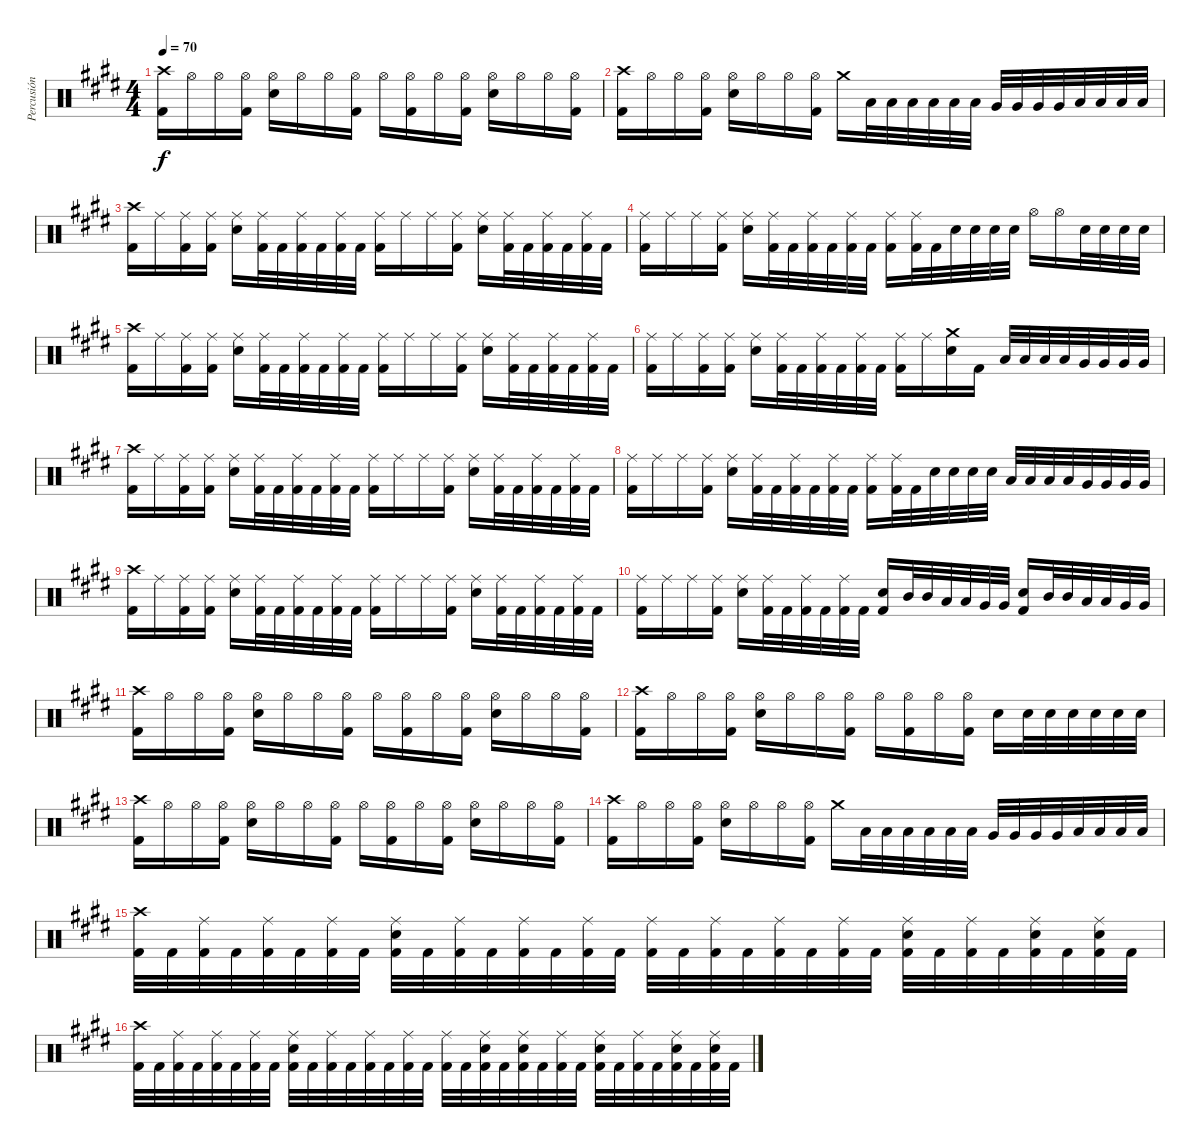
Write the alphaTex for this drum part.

\track ("Percusión" "Percusión") {instrument percussion}
\staff {score}
\articulation defaults
\ts (4 4)
\tempo 70
\clef neutral
\ks e
("Crash high (hit)" "Kick (hit) 2").16{dy f} "Hi-Hat (open)".16 "Hi-Hat (open)".16 ("Hi-Hat (open)" "Kick (hit) 2").16 ("Hi-Hat (open)" "Snare (hit) 2").16 "Hi-Hat (open)".16 "Hi-Hat (open)".16 ("Hi-Hat (open)" "Kick (hit) 2").16 "Hi-Hat (open)".16 ("Hi-Hat (open)" "Kick (hit) 2").16 "Hi-Hat (open)".16 ("Hi-Hat (open)" "Kick (hit) 2").16 ("Hi-Hat (open)" "Snare (hit) 2").16 "Hi-Hat (open)".16 "Hi-Hat (open)".16 ("Hi-Hat (open)" "Kick (hit) 2").16 |
("Crash high (hit)" "Kick (hit) 2").16 "Hi-Hat (open)".16 "Hi-Hat (open)".16 ("Hi-Hat (open)" "Kick (hit) 2").16 ("Hi-Hat (open)" "Snare (hit) 2").16 "Hi-Hat (open)".16 "Hi-Hat (open)".16 ("Hi-Hat (open)" "Kick (hit) 2").16 "Crash medium (hit)".16 "Low Tom (hit)".32 "Low Tom (hit)".32 "Low Tom (hit)".32 "Low Tom (hit)".32 "Low Tom (hit)".32 "Low Tom (hit)".32 "Very Low Tom (hit)".32 "Very Low Tom (hit)".32 "Very Low Tom (hit)".32 "Very Low Tom (hit)".32 "Low Floor Tom (hit)".32 "Low Floor Tom (hit)".32 "Low Floor Tom (hit)".32 "Low Floor Tom (hit)".32 |
("Crash high (hit)" "Kick (hit) 2").16 "Ride (middle)".16 ("Ride (middle)" "Kick (hit) 2").16 ("Ride (middle)" "Kick (hit) 2").16 ("Ride (middle)" "Snare (hit) 2").16 ("Ride (middle)" "Kick (hit) 2").32 "Kick (hit) 2".32 ("Ride (middle)" "Kick (hit) 2").32 "Kick (hit) 2".32 ("Ride (middle)" "Kick (hit) 2").32 "Kick (hit) 2".32 ("Ride (middle)" "Kick (hit) 2").16 "Ride (middle)".16 "Ride (middle)".16 ("Ride (middle)" "Kick (hit) 2").16 ("Ride (middle)" "Snare (hit) 2").16 ("Ride (middle)" "Kick (hit) 2").32 "Kick (hit) 2".32 ("Ride (middle)" "Kick (hit) 2").32 "Kick (hit) 2".32 ("Ride (middle)" "Kick (hit) 2").32 "Kick (hit) 2".32 |
("Ride (middle)" "Kick (hit) 2").16 "Ride (middle)".16 "Ride (middle)".16 ("Ride (middle)" "Kick (hit) 2").16 ("Ride (middle)" "Snare (hit) 2").16 ("Ride (middle)" "Kick (hit) 2").32 "Kick (hit) 2".32 ("Ride (middle)" "Kick (hit) 2").32 "Kick (hit) 2".32 ("Ride (middle)" "Kick (hit) 2").32 "Kick (hit) 2".32 ("Ride (middle)" "Kick (hit) 2").16 ("Ride (middle)" "Kick (hit) 2").32 "Kick (hit) 2".32 "Snare (hit) 2".32 "Snare (hit) 2".32 "Snare (hit) 2".32 "Snare (hit) 2".32 "Hi-Hat (open)".16 "Hi-Hat (open)".16 "Snare (hit) 2".32 "Snare (hit) 2".32 "Snare (hit) 2".32 "Snare (hit) 2".32 |
("Crash high (hit)" "Kick (hit) 2").16 "Ride (middle)".16 ("Ride (middle)" "Kick (hit) 2").16 ("Ride (middle)" "Kick (hit) 2").16 ("Ride (middle)" "Snare (hit) 2").16 ("Ride (middle)" "Kick (hit) 2").32 "Kick (hit) 2".32 ("Ride (middle)" "Kick (hit) 2").32 "Kick (hit) 2".32 ("Ride (middle)" "Kick (hit) 2").32 "Kick (hit) 2".32 ("Ride (middle)" "Kick (hit) 2").16 "Ride (middle)".16 "Ride (middle)".16 ("Ride (middle)" "Kick (hit) 2").16 ("Ride (middle)" "Snare (hit) 2").16 ("Ride (middle)" "Kick (hit) 2").32 "Kick (hit) 2".32 ("Ride (middle)" "Kick (hit) 2").32 "Kick (hit) 2".32 ("Ride (middle)" "Kick (hit) 2").32 "Kick (hit) 2".32 |
("Ride (middle)" "Kick (hit) 2").16 "Ride (middle)".16 ("Ride (middle)" "Kick (hit) 2").16 ("Ride (middle)" "Kick (hit) 2").16 ("Ride (middle)" "Snare (hit) 2").16 ("Ride (middle)" "Kick (hit) 2").32 "Kick (hit) 2".32 ("Ride (middle)" "Kick (hit) 2").32 "Kick (hit) 2".32 ("Ride (middle)" "Kick (hit) 2").32 "Kick (hit) 2".32 ("Ride (middle)" "Kick (hit) 2").16 "Ride (middle)".16 ("Crash medium (hit)" "Electric Snare (hit)").16 "Kick (hit) 2".16 "Low Tom (hit)".32 "Low Tom (hit)".32 "Low Tom (hit)".32 "Low Tom (hit)".32 "Very Low Tom (hit)".32 "Very Low Tom (hit)".32 "Very Low Tom (hit)".32 "Very Low Tom (hit)".32 |
("Crash high (hit)" "Kick (hit) 2").16 "Ride (middle)".16 ("Ride (middle)" "Kick (hit) 2").16 ("Ride (middle)" "Kick (hit) 2").16 ("Ride (middle)" "Snare (hit) 2").16 ("Ride (middle)" "Kick (hit) 2").32 "Kick (hit) 2".32 ("Ride (middle)" "Kick (hit) 2").32 "Kick (hit) 2".32 ("Ride (middle)" "Kick (hit) 2").32 "Kick (hit) 2".32 ("Ride (middle)" "Kick (hit) 2").16 "Ride (middle)".16 "Ride (middle)".16 ("Ride (middle)" "Kick (hit) 2").16 ("Ride (middle)" "Snare (hit) 2").16 ("Ride (middle)" "Kick (hit) 2").32 "Kick (hit) 2".32 ("Ride (middle)" "Kick (hit) 2").32 "Kick (hit) 2".32 ("Ride (middle)" "Kick (hit) 2").32 "Kick (hit) 2".32 |
("Ride (middle)" "Kick (hit) 2").16 "Ride (middle)".16 "Ride (middle)".16 ("Ride (middle)" "Kick (hit) 2").16 ("Ride (middle)" "Snare (hit) 2").16 ("Ride (middle)" "Kick (hit) 2").32 "Kick (hit) 2".32 ("Ride (middle)" "Kick (hit) 2").32 "Kick (hit) 2".32 ("Ride (middle)" "Kick (hit) 2").32 "Kick (hit) 2".32 ("Ride (middle)" "Kick (hit) 2").16 ("Ride (middle)" "Kick (hit) 2").32 "Kick (hit) 2".32 "Snare (hit) 2".32 "Snare (hit) 2".32 "Snare (hit) 2".32 "Snare (hit) 2".32 "Low Tom (hit)".32 "Low Tom (hit)".32 "Low Tom (hit)".32 "Low Tom (hit)".32 "Very Low Tom (hit)".32 "Very Low Tom (hit)".32 "Very Low Tom (hit)".32 "Very Low Tom (hit)".32 |
("Crash high (hit)" "Kick (hit) 2").16 "Ride (middle)".16 ("Ride (middle)" "Kick (hit) 2").16 ("Ride (middle)" "Kick (hit) 2").16 ("Ride (middle)" "Snare (hit) 2").16 ("Ride (middle)" "Kick (hit) 2").32 "Kick (hit) 2".32 ("Ride (middle)" "Kick (hit) 2").32 "Kick (hit) 2".32 ("Ride (middle)" "Kick (hit) 2").32 "Kick (hit) 2".32 ("Ride (middle)" "Kick (hit) 2").16 "Ride (middle)".16 "Ride (middle)".16 ("Ride (middle)" "Kick (hit) 2").16 ("Ride (middle)" "Snare (hit) 2").16 ("Ride (middle)" "Kick (hit) 2").32 "Kick (hit) 2".32 ("Ride (middle)" "Kick (hit) 2").32 "Kick (hit) 2".32 ("Ride (middle)" "Kick (hit) 2").32 "Kick (hit) 2".32 |
("Ride (middle)" "Kick (hit) 2").16 "Ride (middle)".16 "Ride (middle)".16 ("Ride (middle)" "Kick (hit) 2").16 ("Ride (middle)" "Snare (hit) 2").16 ("Ride (middle)" "Kick (hit) 2").32 "Kick (hit) 2".32 ("Ride (middle)" "Kick (hit) 2").32 "Kick (hit) 2".32 ("Ride (middle)" "Kick (hit) 2").32 "Kick (hit) 2".32 ("Snare (hit) 2" "Kick (hit) 2").16 "Mid Tom (hit)".32 "Mid Tom (hit)".32 "Low Tom (hit)".32 "Low Tom (hit)".32 "Very Low Tom (hit)".32 "Very Low Tom (hit)".32 ("Snare (hit) 2" "Kick (hit) 2").16 "Mid Tom (hit)".32 "Mid Tom (hit)".32 "Low Tom (hit)".32 "Low Tom (hit)".32 "Very Low Tom (hit)".32 "Very Low Tom (hit)".32 |
("Crash high (hit)" "Kick (hit) 2").16 "Hi-Hat (open)".16 "Hi-Hat (open)".16 ("Hi-Hat (open)" "Kick (hit) 2").16 ("Hi-Hat (open)" "Snare (hit) 2").16 "Hi-Hat (open)".16 "Hi-Hat (open)".16 ("Hi-Hat (open)" "Kick (hit) 2").16 "Hi-Hat (open)".16 ("Hi-Hat (open)" "Kick (hit) 2").16 "Hi-Hat (open)".16 ("Hi-Hat (open)" "Kick (hit) 2").16 ("Hi-Hat (open)" "Snare (hit) 2").16 "Hi-Hat (open)".16 "Hi-Hat (open)".16 ("Hi-Hat (open)" "Kick (hit) 2").16 |
("Crash high (hit)" "Kick (hit) 2").16 "Hi-Hat (open)".16 "Hi-Hat (open)".16 ("Hi-Hat (open)" "Kick (hit) 2").16 ("Hi-Hat (open)" "Snare (hit) 2").16 "Hi-Hat (open)".16 "Hi-Hat (open)".16 ("Hi-Hat (open)" "Kick (hit) 2").16 "Hi-Hat (open)".16 ("Hi-Hat (open)" "Kick (hit) 2").16 "Hi-Hat (open)".16 ("Hi-Hat (open)" "Kick (hit) 2").16 "Snare (hit) 2".16 "Snare (hit) 2".32 "Snare (hit) 2".32 "Snare (hit) 2".32 "Snare (hit) 2".32 "Snare (hit) 2".32 "Snare (hit) 2".32 |
("Crash high (hit)" "Kick (hit) 2").16 "Hi-Hat (open)".16 "Hi-Hat (open)".16 ("Hi-Hat (open)" "Kick (hit) 2").16 ("Hi-Hat (open)" "Snare (hit) 2").16 "Hi-Hat (open)".16 "Hi-Hat (open)".16 ("Hi-Hat (open)" "Kick (hit) 2").16 "Hi-Hat (open)".16 ("Hi-Hat (open)" "Kick (hit) 2").16 "Hi-Hat (open)".16 ("Hi-Hat (open)" "Kick (hit) 2").16 ("Hi-Hat (open)" "Snare (hit) 2").16 "Hi-Hat (open)".16 "Hi-Hat (open)".16 ("Hi-Hat (open)" "Kick (hit) 2").16 |
("Crash high (hit)" "Kick (hit) 2").16 "Hi-Hat (open)".16 "Hi-Hat (open)".16 ("Hi-Hat (open)" "Kick (hit) 2").16 ("Hi-Hat (open)" "Snare (hit) 2").16 "Hi-Hat (open)".16 "Hi-Hat (open)".16 ("Hi-Hat (open)" "Kick (hit) 2").16 "Crash medium (hit)".16 "Low Tom (hit)".32 "Low Tom (hit)".32 "Low Tom (hit)".32 "Low Tom (hit)".32 "Low Tom (hit)".32 "Low Tom (hit)".32 "Very Low Tom (hit)".32 "Very Low Tom (hit)".32 "Very Low Tom (hit)".32 "Very Low Tom (hit)".32 "Low Floor Tom (hit)".32 "Low Floor Tom (hit)".32 "Low Floor Tom (hit)".32 "Low Floor Tom (hit)".32 |
("Crash high (hit)" "Kick (hit) 2").32 "Kick (hit) 2".32 ("Ride (middle)" "Kick (hit) 2").32 "Kick (hit) 2".32 ("Ride (middle)" "Kick (hit) 2").32 "Kick (hit) 2".32 ("Ride (middle)" "Kick (hit) 2").32 "Kick (hit) 2".32 ("Ride (middle)" "Snare (hit) 2" "Kick (hit) 2").32 "Kick (hit) 2".32 ("Ride (middle)" "Kick (hit) 2").32 "Kick (hit) 2".32 ("Ride (middle)" "Kick (hit) 2").32 "Kick (hit) 2".32 ("Ride (middle)" "Kick (hit) 2").32 "Kick (hit) 2".32 ("Ride (middle)" "Kick (hit) 2").32 "Kick (hit) 2".32 ("Ride (middle)" "Kick (hit) 2").32 "Kick (hit) 2".32 ("Ride (middle)" "Kick (hit) 2").32 "Kick (hit) 2".32 ("Ride (middle)" "Kick (hit) 2").32 "Kick (hit) 2".32 ("Ride (middle)" "Snare (hit) 2" "Kick (hit) 2").32 "Kick (hit) 2".32 ("Ride (middle)" "Kick (hit) 2").32 "Kick (hit) 2".32 ("Ride (middle)" "Snare (hit) 2" "Kick (hit) 2").32 "Kick (hit) 2".32 ("Ride (middle)" "Snare (hit) 2" "Kick (hit) 2").32 "Kick (hit) 2".32 |
("Crash high (hit)" "Kick (hit) 2").32 "Kick (hit) 2".32 ("Ride (middle)" "Kick (hit) 2").32 "Kick (hit) 2".32 ("Ride (middle)" "Kick (hit) 2").32 "Kick (hit) 2".32 ("Ride (middle)" "Kick (hit) 2").32 "Kick (hit) 2".32 ("Ride (middle)" "Snare (hit) 2" "Kick (hit) 2").32 "Kick (hit) 2".32 ("Ride (middle)" "Kick (hit) 2").32 "Kick (hit) 2".32 ("Ride (middle)" "Kick (hit) 2").32 "Kick (hit) 2".32 ("Ride (middle)" "Kick (hit) 2").32 "Kick (hit) 2".32 ("Ride (middle)" "Kick (hit) 2").32 "Kick (hit) 2".32 ("Ride (middle)" "Snare (hit) 2" "Kick (hit) 2").32 "Kick (hit) 2".32 ("Ride (middle)" "Snare (hit) 2" "Kick (hit) 2").32 "Kick (hit) 2".32 ("Ride (middle)" "Kick (hit) 2").32 "Kick (hit) 2".32 ("Ride (middle)" "Snare (hit) 2" "Kick (hit) 2").32 "Kick (hit) 2".32 ("Ride (middle)" "Kick (hit) 2").32 "Kick (hit) 2".32 ("Ride (middle)" "Snare (hit) 2" "Kick (hit) 2").32 "Kick (hit) 2".32 ("Ride (middle)" "Snare (hit) 2" "Kick (hit) 2").32 "Kick (hit) 2".32
